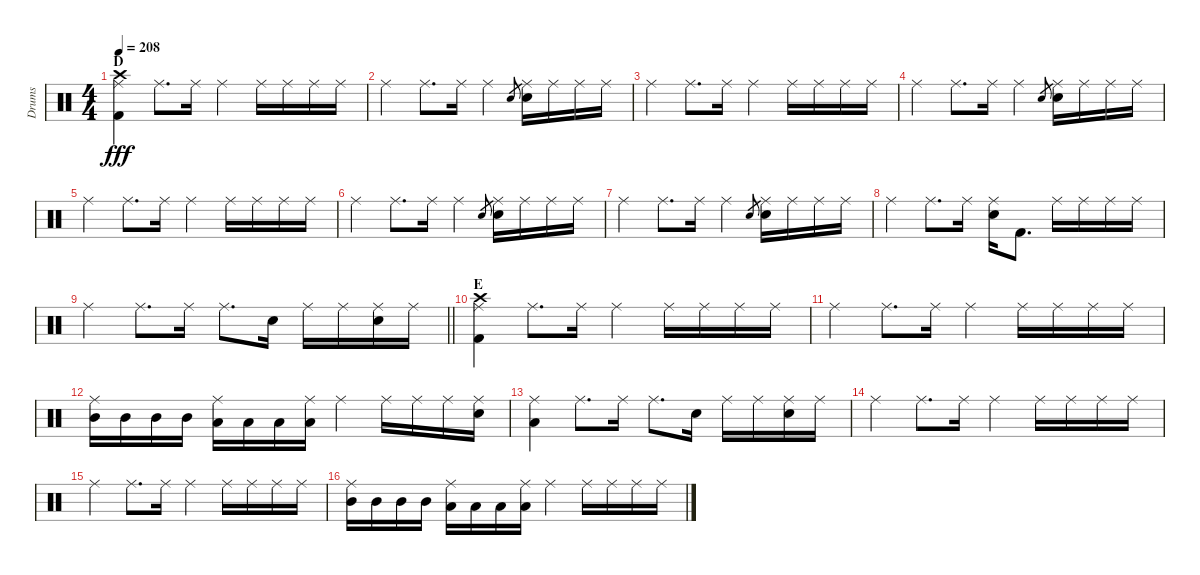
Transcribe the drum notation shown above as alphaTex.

\track ("Drums" "Drums") {instrument percussion}
\staff {score}
\articulation defaults
\ts (4 4)
\section ("" "D")
\tempo 208
\clef neutral
\ks c
("Ride (middle)" "Crash high (hit)" "Kick (hit) 2").4{dy fff} "Ride (middle)".8{d} "Ride (middle)".16 "Ride (middle)".4 "Ride (middle)".16 "Ride (middle)".16 "Ride (middle)".16 "Ride (middle)".16 |
"Ride (middle)".4 "Ride (middle)".8{d} "Ride (middle)".16 "Ride (middle)".4 "Snare (hit) 2".8{gr} ("Ride (middle)" "Snare (hit) 2").16 "Ride (middle)".16 "Ride (middle)".16 "Ride (middle)".16 |
"Ride (middle)".4 "Ride (middle)".8{d} "Ride (middle)".16 "Ride (middle)".4 "Ride (middle)".16 "Ride (middle)".16 "Ride (middle)".16 "Ride (middle)".16 |
"Ride (middle)".4 "Ride (middle)".8{d} "Ride (middle)".16 "Ride (middle)".4 "Snare (hit) 2".8{gr} ("Ride (middle)" "Snare (hit) 2").16 "Ride (middle)".16 "Ride (middle)".16 "Ride (middle)".16 |
"Ride (middle)".4 "Ride (middle)".8{d} "Ride (middle)".16 "Ride (middle)".4 "Ride (middle)".16 "Ride (middle)".16 "Ride (middle)".16 "Ride (middle)".16 |
"Ride (middle)".4 "Ride (middle)".8{d} "Ride (middle)".16 "Ride (middle)".4 "Snare (hit) 2".8{gr} ("Ride (middle)" "Snare (hit) 2").16 "Ride (middle)".16 "Ride (middle)".16 "Ride (middle)".16 |
"Ride (middle)".4 "Ride (middle)".8{d} "Ride (middle)".16 "Ride (middle)".4 "Snare (hit) 2".8{gr} ("Ride (middle)" "Snare (hit) 2").16 "Ride (middle)".16 "Ride (middle)".16 "Ride (middle)".16 |
"Ride (middle)".4 "Ride (middle)".8{d} "Ride (middle)".16 ("Ride (middle)" "Snare (hit) 2").16 "Kick (hit) 2".8{d} "Ride (middle)".16 "Ride (middle)".16 "Ride (middle)".16 "Ride (middle)".16 |
\barLineRight lightlight "Ride (middle)".4 "Ride (middle)".8{d} "Ride (middle)".16 "Ride (middle)".8{d} "Snare (hit) 2".16 "Ride (middle)".16 "Ride (middle)".16
("Ride (middle)" "Snare (hit) 2").16 "Ride (middle)".16 |
\section ("" "E")
("Ride (middle)" "Crash high (hit)" "Kick (hit) 2").4 "Ride (middle)".8{d} "Ride (middle)".16 "Ride (middle)".4 "Ride (middle)".16 "Ride (middle)".16 "Ride (middle)".16 "Ride (middle)".16 |
"Ride (middle)".4 "Ride (middle)".8{d} "Ride (middle)".16 "Ride (middle)".4 "Ride (middle)".16 "Ride (middle)".16 "Ride (middle)".16 "Ride (middle)".16 |
("Ride (middle)" "Mid Tom (hit)").16 "Mid Tom (hit)".16 "Mid Tom (hit)".16 "Mid Tom (hit)".16 ("Ride (middle)" "Low Tom (hit)").16 "Low Tom (hit)".16 "Low Tom (hit)".16 ("Ride (middle)" "Low Tom (hit)").16 "Ride (middle)".4 "Ride (middle)".16 "Ride (middle)".16 "Ride (middle)".16 ("Ride (middle)" "Snare (hit) 2").16 |
("Ride (middle)" "Low Tom (hit)").4 "Ride (middle)".8{d} "Ride (middle)".16 "Ride (middle)".8{d} "Snare (hit) 2".16 "Ride (middle)".16 "Ride (middle)".16 ("Ride (middle)" "Snare (hit) 2").16 "Ride (middle)".16 |
"Ride (middle)".4 "Ride (middle)".8{d} "Ride (middle)".16 "Ride (middle)".4 "Ride (middle)".16 "Ride (middle)".16 "Ride (middle)".16 "Ride (middle)".16 |
"Ride (middle)".4 "Ride (middle)".8{d} "Ride (middle)".16 "Ride (middle)".4 "Ride (middle)".16 "Ride (middle)".16 "Ride (middle)".16 "Ride (middle)".16 |
("Ride (middle)" "Mid Tom (hit)").16 "Mid Tom (hit)".16 "Mid Tom (hit)".16 "Mid Tom (hit)".16 ("Ride (middle)" "Low Tom (hit)").16 "Low Tom (hit)".16 "Low Tom (hit)".16 ("Ride (middle)" "Low Tom (hit)").16 "Ride (middle)".4 "Ride (middle)".16 "Ride (middle)".16 "Ride (middle)".16 "Ride (middle)".16
